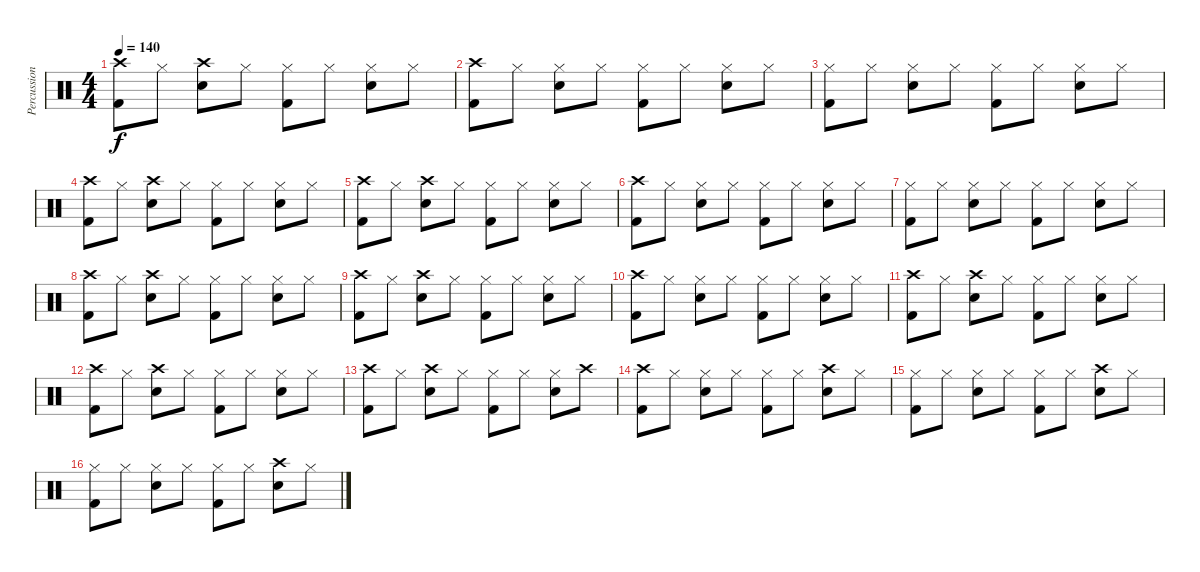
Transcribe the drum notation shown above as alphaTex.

\track ("Percussion" "Percussion") {instrument percussion}
\staff {score}
\articulation defaults
\ts (4 4)
\tempo 140
\clef neutral
\ks c
("Crash high (hit)" "Kick (hit) 2").8{dy f} "Hi-Hat (closed)".8 ("Crash high (hit)" "Electric Snare (hit)").8 "Hi-Hat (closed)".8 ("Hi-Hat (closed)" "Kick (hit) 2").8 "Hi-Hat (closed)".8 ("Hi-Hat (closed)" "Electric Snare (hit)").8 "Hi-Hat (closed)".8 |
("Crash high (hit)" "Kick (hit) 2").8 "Hi-Hat (closed)".8 ("Hi-Hat (closed)" "Electric Snare (hit)").8 "Hi-Hat (closed)".8 ("Hi-Hat (closed)" "Kick (hit) 2").8 "Hi-Hat (closed)".8 ("Hi-Hat (closed)" "Electric Snare (hit)").8 "Hi-Hat (closed)".8 |
("Hi-Hat (closed)" "Kick (hit) 2").8 "Hi-Hat (closed)".8 ("Hi-Hat (closed)" "Electric Snare (hit)").8 "Hi-Hat (closed)".8 ("Hi-Hat (closed)" "Kick (hit) 2").8 "Hi-Hat (closed)".8 ("Hi-Hat (closed)" "Electric Snare (hit)").8 "Hi-Hat (closed)".8 |
("Crash high (hit)" "Kick (hit) 2").8 "Hi-Hat (closed)".8 ("Crash high (hit)" "Electric Snare (hit)").8 "Hi-Hat (closed)".8 ("Hi-Hat (closed)" "Kick (hit) 2").8 "Hi-Hat (closed)".8 ("Hi-Hat (closed)" "Electric Snare (hit)").8 "Hi-Hat (closed)".8 |
("Crash high (hit)" "Kick (hit) 2").8 "Hi-Hat (closed)".8 ("Crash high (hit)" "Electric Snare (hit)").8 "Hi-Hat (closed)".8 ("Hi-Hat (closed)" "Kick (hit) 2").8 "Hi-Hat (closed)".8 ("Hi-Hat (closed)" "Electric Snare (hit)").8 "Hi-Hat (closed)".8 |
("Crash high (hit)" "Kick (hit) 2").8 "Hi-Hat (closed)".8 ("Hi-Hat (closed)" "Electric Snare (hit)").8 "Hi-Hat (closed)".8 ("Hi-Hat (closed)" "Kick (hit) 2").8 "Hi-Hat (closed)".8 ("Hi-Hat (closed)" "Electric Snare (hit)").8 "Hi-Hat (closed)".8 |
("Hi-Hat (closed)" "Kick (hit) 2").8 "Hi-Hat (closed)".8 ("Hi-Hat (closed)" "Electric Snare (hit)").8 "Hi-Hat (closed)".8 ("Hi-Hat (closed)" "Kick (hit) 2").8 "Hi-Hat (closed)".8 ("Hi-Hat (closed)" "Electric Snare (hit)").8 "Hi-Hat (closed)".8 |
("Crash high (hit)" "Kick (hit) 2").8 "Hi-Hat (closed)".8 ("Crash high (hit)" "Electric Snare (hit)").8 "Hi-Hat (closed)".8 ("Hi-Hat (closed)" "Kick (hit) 2").8 "Hi-Hat (closed)".8 ("Hi-Hat (closed)" "Electric Snare (hit)").8 "Hi-Hat (closed)".8 |
("Crash high (hit)" "Kick (hit) 2").8 "Hi-Hat (closed)".8 ("Crash high (hit)" "Electric Snare (hit)").8 "Hi-Hat (closed)".8 ("Hi-Hat (closed)" "Kick (hit) 2").8 "Hi-Hat (closed)".8 ("Hi-Hat (closed)" "Electric Snare (hit)").8 "Hi-Hat (closed)".8 |
("Crash high (hit)" "Kick (hit) 2").8 "Hi-Hat (closed)".8 ("Hi-Hat (closed)" "Electric Snare (hit)").8 "Hi-Hat (closed)".8 ("Hi-Hat (closed)" "Kick (hit) 2").8 "Hi-Hat (closed)".8 ("Hi-Hat (closed)" "Electric Snare (hit)").8 "Hi-Hat (closed)".8 |
("Crash high (hit)" "Kick (hit) 2").8 "Hi-Hat (closed)".8 ("Crash high (hit)" "Electric Snare (hit)").8 "Hi-Hat (closed)".8 ("Hi-Hat (closed)" "Kick (hit) 2").8 "Hi-Hat (closed)".8 ("Hi-Hat (closed)" "Electric Snare (hit)").8 "Hi-Hat (closed)".8 |
("Crash high (hit)" "Kick (hit) 2").8 "Hi-Hat (closed)".8 ("Crash high (hit)" "Electric Snare (hit)").8 "Hi-Hat (closed)".8 ("Hi-Hat (closed)" "Kick (hit) 2").8 "Hi-Hat (closed)".8 ("Hi-Hat (closed)" "Electric Snare (hit)").8 "Hi-Hat (closed)".8 |
("Crash high (hit)" "Kick (hit) 2").8 "Hi-Hat (closed)".8 ("Crash high (hit)" "Electric Snare (hit)").8 "Hi-Hat (closed)".8 ("Hi-Hat (closed)" "Kick (hit) 2").8 "Hi-Hat (closed)".8 ("Hi-Hat (closed)" "Electric Snare (hit)").8 "Crash high (hit)".8 |
("Crash high (hit)" "Kick (hit) 2").8 "Hi-Hat (closed)".8 ("Hi-Hat (closed)" "Electric Snare (hit)").8 "Hi-Hat (closed)".8 ("Hi-Hat (closed)" "Kick (hit) 2").8 "Hi-Hat (closed)".8 ("Crash high (hit)" "Electric Snare (hit)").8 "Hi-Hat (closed)".8 |
("Hi-Hat (closed)" "Kick (hit) 2").8 "Hi-Hat (closed)".8 ("Hi-Hat (closed)" "Electric Snare (hit)").8 "Hi-Hat (closed)".8 ("Hi-Hat (closed)" "Kick (hit) 2").8 "Hi-Hat (closed)".8 ("Crash high (hit)" "Electric Snare (hit)").8 "Hi-Hat (closed)".8 |
("Hi-Hat (closed)" "Kick (hit) 2").8 "Hi-Hat (closed)".8 ("Hi-Hat (closed)" "Electric Snare (hit)").8 "Hi-Hat (closed)".8 ("Hi-Hat (closed)" "Kick (hit) 2").8 "Hi-Hat (closed)".8 ("Crash high (hit)" "Electric Snare (hit)").8 "Hi-Hat (closed)".8
